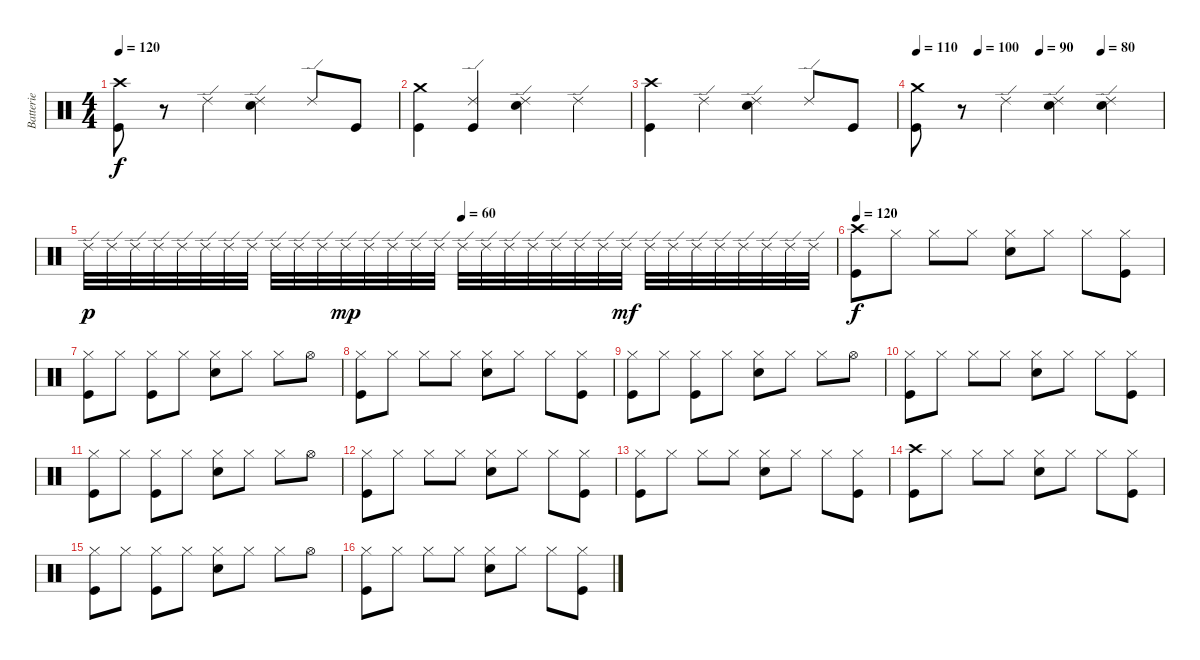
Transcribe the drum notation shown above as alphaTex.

\track ("Batterie" "Batterie") {instrument percussion}
\staff {score}
\articulation defaults
\ts (4 4)
\tempo 120
\clef neutral
\ks c
("Kick (hit)" "Crash high (hit)").8{dy f} r.8 "Ride (edge) 2".4 ("Ride (edge) 2" "Snare (hit) 2").4 "Ride (edge) 2".8 "Kick (hit)".8 |
("Crash medium (hit)" "Kick (hit)").4 ("Kick (hit)" "Ride (edge) 2").4 ("Ride (edge) 2" "Snare (hit) 2").4 "Ride (edge) 2".4 |
("Crash high (hit)" "Kick (hit)").4 "Ride (edge) 2".4 ("Ride (edge) 2" "Snare (hit) 2").4 "Ride (edge) 2".8 "Kick (hit)".8 |
\tempo 110
\tempo (100 0.25)
\tempo (90 0.5)
\tempo (80 0.75)
("Kick (hit)" "Crash medium (hit)").8 r.8 "Ride (edge) 2".4 ("Ride (edge) 2" "Snare (hit) 2").4 ("Ride (edge) 2" "Snare (hit) 2").4 |
\tempo (60 0.5)
"Ride (edge) 2".32{dy p} "Ride (edge) 2".32 "Ride (edge) 2".32 "Ride (edge) 2".32 "Ride (edge) 2".32 "Ride (edge) 2".32 "Ride (edge) 2".32 "Ride (edge) 2".32 "Ride (edge) 2".32 "Ride (edge) 2".32 "Ride (edge) 2".32 "Ride (edge) 2".32{dy mp} "Ride (edge) 2".32 "Ride (edge) 2".32 "Ride (edge) 2".32 "Ride (edge) 2".32 "Ride (edge) 2".32 "Ride (edge) 2".32 "Ride (edge) 2".32 "Ride (edge) 2".32 "Ride (edge) 2".32 "Ride (edge) 2".32 "Ride (edge) 2".32 "Ride (edge) 2".32{dy mf} "Ride (edge) 2".32 "Ride (edge) 2".32 "Ride (edge) 2".32 "Ride (edge) 2".32 "Ride (edge) 2".32 "Ride (edge) 2".32 "Ride (edge) 2".32 "Ride (edge) 2".32 |
\tempo 120
("Crash high (hit)" "Kick (hit)").8{dy f} "Hi-Hat (closed)".8 "Hi-Hat (closed)".8 "Hi-Hat (closed)".8 ("Snare (hit) 2" "Hi-Hat (closed)").8 "Hi-Hat (closed)".8 "Hi-Hat (closed)".8 ("Kick (hit)" "Hi-Hat (closed)").8 |
("Hi-Hat (closed)" "Kick (hit)").8 "Hi-Hat (closed)".8 ("Kick (hit)" "Hi-Hat (closed)").8 "Hi-Hat (closed)".8 ("Snare (hit) 2" "Hi-Hat (closed)").8 "Hi-Hat (closed)".8 "Hi-Hat (closed)".8 "Hi-Hat (open)".8 |
("Kick (hit)" "Hi-Hat (closed)").8 "Hi-Hat (closed)".8 "Hi-Hat (closed)".8 "Hi-Hat (closed)".8 ("Snare (hit) 2" "Hi-Hat (closed)").8 "Hi-Hat (closed)".8 "Hi-Hat (closed)".8 ("Kick (hit)" "Hi-Hat (closed)").8 |
("Kick (hit)" "Hi-Hat (closed)").8 "Hi-Hat (closed)".8 ("Kick (hit)" "Hi-Hat (closed)").8 "Hi-Hat (closed)".8 ("Snare (hit) 2" "Hi-Hat (closed)").8 "Hi-Hat (closed)".8 "Hi-Hat (closed)".8 "Hi-Hat (open)".8 |
("Kick (hit)" "Hi-Hat (closed)").8 "Hi-Hat (closed)".8 "Hi-Hat (closed)".8 "Hi-Hat (closed)".8 ("Snare (hit) 2" "Hi-Hat (closed)").8 "Hi-Hat (closed)".8 "Hi-Hat (closed)".8 ("Kick (hit)" "Hi-Hat (closed)").8 |
("Kick (hit)" "Hi-Hat (closed)").8 "Hi-Hat (closed)".8 ("Kick (hit)" "Hi-Hat (closed)").8 "Hi-Hat (closed)".8 ("Snare (hit) 2" "Hi-Hat (closed)").8 "Hi-Hat (closed)".8 "Hi-Hat (closed)".8 "Hi-Hat (open)".8 |
("Hi-Hat (closed)" "Kick (hit)").8 "Hi-Hat (closed)".8 "Hi-Hat (closed)".8 "Hi-Hat (closed)".8 ("Snare (hit) 2" "Hi-Hat (closed)").8 "Hi-Hat (closed)".8 "Hi-Hat (closed)".8 ("Kick (hit)" "Hi-Hat (closed)").8 |
("Kick (hit)" "Hi-Hat (closed)").8 "Hi-Hat (closed)".8 "Hi-Hat (closed)".8 "Hi-Hat (closed)".8 ("Hi-Hat (closed)" "Snare (hit) 2").8 "Hi-Hat (closed)".8 "Hi-Hat (closed)".8 ("Hi-Hat (closed)" "Kick (hit)").8 |
("Crash high (hit)" "Kick (hit)").8 "Hi-Hat (closed)".8 "Hi-Hat (closed)".8 "Hi-Hat (closed)".8 ("Snare (hit) 2" "Hi-Hat (closed)").8 "Hi-Hat (closed)".8 "Hi-Hat (closed)".8 ("Kick (hit)" "Hi-Hat (closed)").8 |
("Hi-Hat (closed)" "Kick (hit)").8 "Hi-Hat (closed)".8 ("Kick (hit)" "Hi-Hat (closed)").8 "Hi-Hat (closed)".8 ("Snare (hit) 2" "Hi-Hat (closed)").8 "Hi-Hat (closed)".8 "Hi-Hat (closed)".8 "Hi-Hat (open)".8 |
("Kick (hit)" "Hi-Hat (closed)").8 "Hi-Hat (closed)".8 "Hi-Hat (closed)".8 "Hi-Hat (closed)".8 ("Snare (hit) 2" "Hi-Hat (closed)").8 "Hi-Hat (closed)".8 "Hi-Hat (closed)".8 ("Kick (hit)" "Hi-Hat (closed)").8
